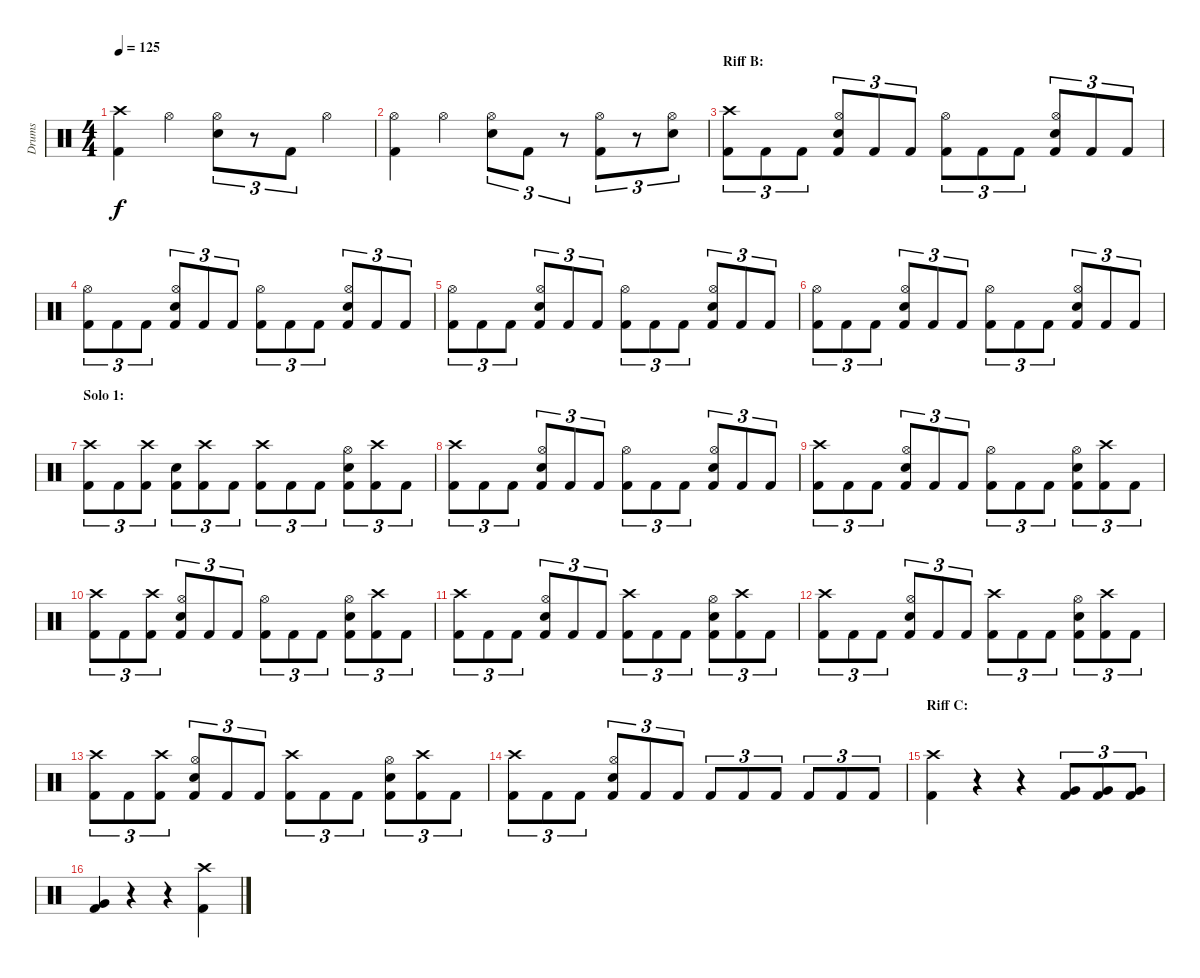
\track ("Drums" "Drums") {instrument percussion}
\staff {score}
\articulation defaults
\ts (4 4)
\tempo 125
\clef neutral
\ks c
("Crash high (hit)" "Kick (hit) 2").4{dy f} "Hi-Hat (open)".4 ("Hi-Hat (open)" "Electric Snare (hit)").8{tu (3 2)} r.8{tu (3 2)} "Kick (hit) 2".8{tu (3 2)} "Hi-Hat (open)".4 |
("Hi-Hat (open)" "Kick (hit) 2").4 "Hi-Hat (open)".4 ("Hi-Hat (open)" "Electric Snare (hit)").8{tu (3 2)} "Kick (hit) 2".8{tu (3 2)} r.8{tu (3 2)} ("Hi-Hat (open)" "Kick (hit) 2").8{tu (3 2)} r.8{tu (3 2)} ("Hi-Hat (open)" "Electric Snare (hit)").8{tu (3 2)} |
\section ("" "Riff B:")
("Crash high (hit)" "Kick (hit) 2").8{tu (3 2)} "Kick (hit) 2".8{tu (3 2)} "Kick (hit) 2".8{tu (3 2)} ("Hi-Hat (open)" "Electric Snare (hit)" "Kick (hit) 2").8{tu (3 2)} "Kick (hit) 2".8{tu (3 2)} "Kick (hit) 2".8{tu (3 2)} ("Hi-Hat (open)" "Kick (hit) 2").8{tu (3 2)} "Kick (hit) 2".8{tu (3 2)} "Kick (hit) 2".8{tu (3 2)} ("Hi-Hat (open)" "Electric Snare (hit)" "Kick (hit) 2").8{tu (3 2)} "Kick (hit) 2".8{tu (3 2)} "Kick (hit) 2".8{tu (3 2)} |
("Hi-Hat (open)" "Kick (hit) 2").8{tu (3 2)} "Kick (hit) 2".8{tu (3 2)} "Kick (hit) 2".8{tu (3 2)} ("Hi-Hat (open)" "Electric Snare (hit)" "Kick (hit) 2").8{tu (3 2)} "Kick (hit) 2".8{tu (3 2)} "Kick (hit) 2".8{tu (3 2)} ("Hi-Hat (open)" "Kick (hit) 2").8{tu (3 2)} "Kick (hit) 2".8{tu (3 2)} "Kick (hit) 2".8{tu (3 2)} ("Hi-Hat (open)" "Electric Snare (hit)" "Kick (hit) 2").8{tu (3 2)} "Kick (hit) 2".8{tu (3 2)} "Kick (hit) 2".8{tu (3 2)} |
("Hi-Hat (open)" "Kick (hit) 2").8{tu (3 2)} "Kick (hit) 2".8{tu (3 2)} "Kick (hit) 2".8{tu (3 2)} ("Hi-Hat (open)" "Electric Snare (hit)" "Kick (hit) 2").8{tu (3 2)} "Kick (hit) 2".8{tu (3 2)} "Kick (hit) 2".8{tu (3 2)} ("Hi-Hat (open)" "Kick (hit) 2").8{tu (3 2)} "Kick (hit) 2".8{tu (3 2)} "Kick (hit) 2".8{tu (3 2)} ("Hi-Hat (open)" "Electric Snare (hit)" "Kick (hit) 2").8{tu (3 2)} "Kick (hit) 2".8{tu (3 2)} "Kick (hit) 2".8{tu (3 2)} |
("Hi-Hat (open)" "Kick (hit) 2").8{tu (3 2)} "Kick (hit) 2".8{tu (3 2)} "Kick (hit) 2".8{tu (3 2)} ("Hi-Hat (open)" "Electric Snare (hit)" "Kick (hit) 2").8{tu (3 2)} "Kick (hit) 2".8{tu (3 2)} "Kick (hit) 2".8{tu (3 2)} ("Hi-Hat (open)" "Kick (hit) 2").8{tu (3 2)} "Kick (hit) 2".8{tu (3 2)} "Kick (hit) 2".8{tu (3 2)} ("Hi-Hat (open)" "Electric Snare (hit)" "Kick (hit) 2").8{tu (3 2)} "Kick (hit) 2".8{tu (3 2)} "Kick (hit) 2".8{tu (3 2)} |
\section ("" "Solo 1:")
("Crash high (hit)" "Kick (hit) 2").8{tu (3 2)} "Kick (hit) 2".8{tu (3 2)} ("Crash high (hit)" "Kick (hit) 2").8{tu (3 2)} ("Electric Snare (hit)" "Kick (hit) 2").8{tu (3 2)} ("Crash high (hit)" "Kick (hit) 2").8{tu (3 2)} "Kick (hit) 2".8{tu (3 2)} ("Crash high (hit)" "Kick (hit) 2").8{tu (3 2)} "Kick (hit) 2".8{tu (3 2)} "Kick (hit) 2".8{tu (3 2)} ("Hi-Hat (open)" "Electric Snare (hit)" "Kick (hit) 2").8{tu (3 2)} ("Crash high (hit)" "Kick (hit) 2").8{tu (3 2)} "Kick (hit) 2".8{tu (3 2)} |
("Crash high (hit)" "Kick (hit) 2").8{tu (3 2)} "Kick (hit) 2".8{tu (3 2)} "Kick (hit) 2".8{tu (3 2)} ("Hi-Hat (open)" "Electric Snare (hit)" "Kick (hit) 2").8{tu (3 2)} "Kick (hit) 2".8{tu (3 2)} "Kick (hit) 2".8{tu (3 2)} ("Hi-Hat (open)" "Kick (hit) 2").8{tu (3 2)} "Kick (hit) 2".8{tu (3 2)} "Kick (hit) 2".8{tu (3 2)} ("Hi-Hat (open)" "Electric Snare (hit)" "Kick (hit) 2").8{tu (3 2)} "Kick (hit) 2".8{tu (3 2)} "Kick (hit) 2".8{tu (3 2)} |
("Crash high (hit)" "Kick (hit) 2").8{tu (3 2)} "Kick (hit) 2".8{tu (3 2)} "Kick (hit) 2".8{tu (3 2)} ("Hi-Hat (open)" "Electric Snare (hit)" "Kick (hit) 2").8{tu (3 2)} "Kick (hit) 2".8{tu (3 2)} "Kick (hit) 2".8{tu (3 2)} ("Hi-Hat (open)" "Kick (hit) 2").8{tu (3 2)} "Kick (hit) 2".8{tu (3 2)} "Kick (hit) 2".8{tu (3 2)} ("Hi-Hat (open)" "Electric Snare (hit)" "Kick (hit) 2").8{tu (3 2)} ("Crash high (hit)" "Kick (hit) 2").8{tu (3 2)} "Kick (hit) 2".8{tu (3 2)} |
("Crash high (hit)" "Kick (hit) 2").8{tu (3 2)} "Kick (hit) 2".8{tu (3 2)} ("Crash high (hit)" "Kick (hit) 2").8{tu (3 2)} ("Hi-Hat (open)" "Electric Snare (hit)" "Kick (hit) 2").8{tu (3 2)} "Kick (hit) 2".8{tu (3 2)} "Kick (hit) 2".8{tu (3 2)} ("Hi-Hat (open)" "Kick (hit) 2").8{tu (3 2)} "Kick (hit) 2".8{tu (3 2)} "Kick (hit) 2".8{tu (3 2)} ("Hi-Hat (open)" "Electric Snare (hit)" "Kick (hit) 2").8{tu (3 2)} ("Crash high (hit)" "Kick (hit) 2").8{tu (3 2)} "Kick (hit) 2".8{tu (3 2)} |
("Crash high (hit)" "Kick (hit) 2").8{tu (3 2)} "Kick (hit) 2".8{tu (3 2)} "Kick (hit) 2".8{tu (3 2)} ("Hi-Hat (open)" "Electric Snare (hit)" "Kick (hit) 2").8{tu (3 2)} "Kick (hit) 2".8{tu (3 2)} "Kick (hit) 2".8{tu (3 2)} ("Crash high (hit)" "Kick (hit) 2").8{tu (3 2)} "Kick (hit) 2".8{tu (3 2)} "Kick (hit) 2".8{tu (3 2)} ("Hi-Hat (open)" "Electric Snare (hit)" "Kick (hit) 2").8{tu (3 2)} ("Crash high (hit)" "Kick (hit) 2").8{tu (3 2)} "Kick (hit) 2".8{tu (3 2)} |
("Crash high (hit)" "Kick (hit) 2").8{tu (3 2)} "Kick (hit) 2".8{tu (3 2)} "Kick (hit) 2".8{tu (3 2)} ("Hi-Hat (open)" "Electric Snare (hit)" "Kick (hit) 2").8{tu (3 2)} "Kick (hit) 2".8{tu (3 2)} "Kick (hit) 2".8{tu (3 2)} ("Crash high (hit)" "Kick (hit) 2").8{tu (3 2)} "Kick (hit) 2".8{tu (3 2)} "Kick (hit) 2".8{tu (3 2)} ("Hi-Hat (open)" "Electric Snare (hit)" "Kick (hit) 2").8{tu (3 2)} ("Crash high (hit)" "Kick (hit) 2").8{tu (3 2)} "Kick (hit) 2".8{tu (3 2)} |
("Crash high (hit)" "Kick (hit) 2").8{tu (3 2)} "Kick (hit) 2".8{tu (3 2)} ("Crash high (hit)" "Kick (hit) 2").8{tu (3 2)} ("Hi-Hat (open)" "Electric Snare (hit)" "Kick (hit) 2").8{tu (3 2)} "Kick (hit) 2".8{tu (3 2)} "Kick (hit) 2".8{tu (3 2)} ("Crash high (hit)" "Kick (hit) 2").8{tu (3 2)} "Kick (hit) 2".8{tu (3 2)} "Kick (hit) 2".8{tu (3 2)} ("Hi-Hat (open)" "Electric Snare (hit)" "Kick (hit) 2").8{tu (3 2)} ("Crash high (hit)" "Kick (hit) 2").8{tu (3 2)} "Kick (hit) 2".8{tu (3 2)} |
("Crash high (hit)" "Kick (hit) 2").8{tu (3 2)} "Kick (hit) 2".8{tu (3 2)} "Kick (hit) 2".8{tu (3 2)} ("Hi-Hat (open)" "Electric Snare (hit)" "Kick (hit) 2").8{tu (3 2)} "Kick (hit) 2".8{tu (3 2)} "Kick (hit) 2".8{tu (3 2)} "Kick (hit) 2".8{tu (3 2)} "Kick (hit) 2".8{tu (3 2)} "Kick (hit) 2".8{tu (3 2)} "Kick (hit) 2".8{tu (3 2)} "Kick (hit) 2".8{tu (3 2)} "Kick (hit) 2".8{tu (3 2)} |
\section ("" "Riff C:")
("Crash high (hit)" "Kick (hit) 2").4 r.4 r.4 ("Very Low Tom (hit)" "Kick (hit) 2").8{tu (3 2)} ("Very Low Tom (hit)" "Kick (hit) 2").8{tu (3 2)} ("Very Low Tom (hit)" "Kick (hit) 2").8{tu (3 2)} |
("Very Low Tom (hit)" "Kick (hit) 2").4 r.4 r.4 ("Crash high (hit)" "Kick (hit) 2").4
